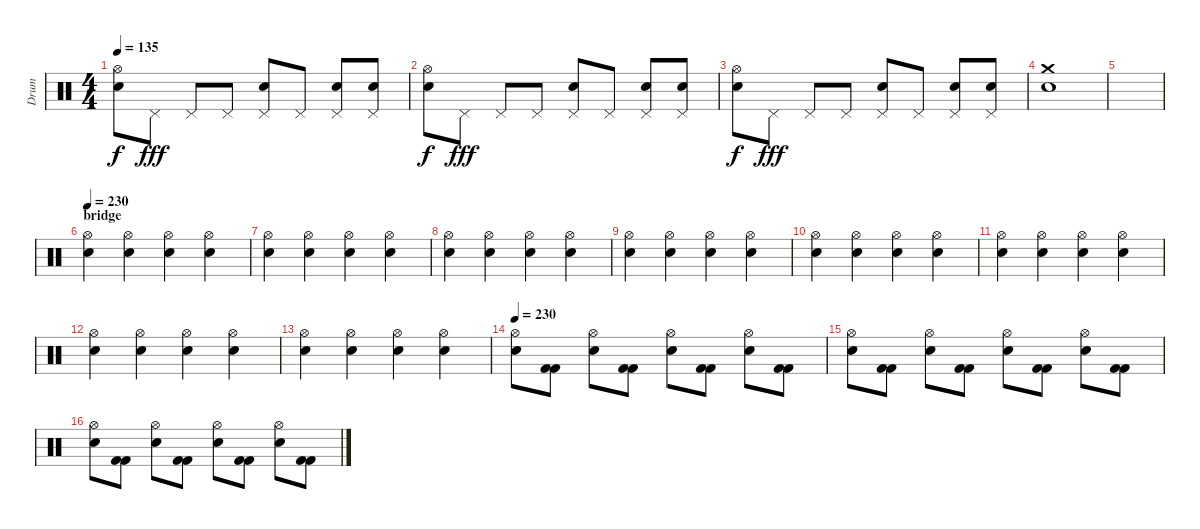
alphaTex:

\track ("Drum" "Drum") {instrument percussion}
\staff {score}
\articulation defaults
\ts (4 4)
\tempo 135
\clef neutral
\ks c
("Hi-Hat (open)" "Electric Snare (hit)").8{dy f} "Pedal Hi-Hat (hit)".8{dy fff} "Pedal Hi-Hat (hit)".8 "Pedal Hi-Hat (hit)".8 ("Pedal Hi-Hat (hit)" "Electric Snare (hit)").8 "Pedal Hi-Hat (hit)".8 ("Pedal Hi-Hat (hit)" "Electric Snare (hit)").8 ("Pedal Hi-Hat (hit)" "Electric Snare (hit)").8 |
("Hi-Hat (open)" "Electric Snare (hit)").8{dy f} "Pedal Hi-Hat (hit)".8{dy fff} "Pedal Hi-Hat (hit)".8 "Pedal Hi-Hat (hit)".8 ("Pedal Hi-Hat (hit)" "Electric Snare (hit)").8 "Pedal Hi-Hat (hit)".8 ("Pedal Hi-Hat (hit)" "Electric Snare (hit)").8 ("Pedal Hi-Hat (hit)" "Electric Snare (hit)").8 |
("Hi-Hat (open)" "Electric Snare (hit)").8{dy f} "Pedal Hi-Hat (hit)".8{dy fff} "Pedal Hi-Hat (hit)".8 "Pedal Hi-Hat (hit)".8 ("Pedal Hi-Hat (hit)" "Electric Snare (hit)").8 "Pedal Hi-Hat (hit)".8 ("Pedal Hi-Hat (hit)" "Electric Snare (hit)").8 ("Pedal Hi-Hat (hit)" "Electric Snare (hit)").8 |
("Crash medium (hit)" "Electric Snare (hit)").1 |
|
\section ("" "bridge")
\tempo 230
("Hi-Hat (open)" "Electric Snare (hit)").4 ("Hi-Hat (open)" "Electric Snare (hit)").4 ("Hi-Hat (open)" "Electric Snare (hit)").4 ("Hi-Hat (open)" "Electric Snare (hit)").4 |
("Hi-Hat (open)" "Electric Snare (hit)").4 ("Hi-Hat (open)" "Electric Snare (hit)").4 ("Hi-Hat (open)" "Electric Snare (hit)").4 ("Hi-Hat (open)" "Electric Snare (hit)").4 |
("Hi-Hat (open)" "Electric Snare (hit)").4 ("Hi-Hat (open)" "Electric Snare (hit)").4 ("Hi-Hat (open)" "Electric Snare (hit)").4 ("Hi-Hat (open)" "Electric Snare (hit)").4 |
("Hi-Hat (open)" "Electric Snare (hit)").4 ("Hi-Hat (open)" "Electric Snare (hit)").4 ("Hi-Hat (open)" "Electric Snare (hit)").4 ("Hi-Hat (open)" "Electric Snare (hit)").4 |
("Hi-Hat (open)" "Electric Snare (hit)").4 ("Hi-Hat (open)" "Electric Snare (hit)").4 ("Hi-Hat (open)" "Electric Snare (hit)").4 ("Hi-Hat (open)" "Electric Snare (hit)").4 |
("Hi-Hat (open)" "Electric Snare (hit)").4 ("Hi-Hat (open)" "Electric Snare (hit)").4 ("Hi-Hat (open)" "Electric Snare (hit)").4 ("Hi-Hat (open)" "Electric Snare (hit)").4 |
("Hi-Hat (open)" "Electric Snare (hit)").4 ("Hi-Hat (open)" "Electric Snare (hit)").4 ("Hi-Hat (open)" "Electric Snare (hit)").4 ("Hi-Hat (open)" "Electric Snare (hit)").4 |
("Hi-Hat (open)" "Electric Snare (hit)").4 ("Hi-Hat (open)" "Electric Snare (hit)").4 ("Hi-Hat (open)" "Electric Snare (hit)").4 ("Hi-Hat (open)" "Electric Snare (hit)").4 |
\tempo 230
("Hi-Hat (open)" "Electric Snare (hit)").8 ("Kick (hit) 2" "Kick (hit) 2").8 ("Hi-Hat (open)" "Electric Snare (hit)").8 ("Kick (hit) 2" "Kick (hit) 2").8 ("Hi-Hat (open)" "Electric Snare (hit)").8 ("Kick (hit) 2" "Kick (hit) 2").8 ("Hi-Hat (open)" "Electric Snare (hit)").8 ("Kick (hit) 2" "Kick (hit) 2").8 |
("Hi-Hat (open)" "Electric Snare (hit)").8 ("Kick (hit) 2" "Kick (hit) 2").8 ("Hi-Hat (open)" "Electric Snare (hit)").8 ("Kick (hit) 2" "Kick (hit) 2").8 ("Hi-Hat (open)" "Electric Snare (hit)").8 ("Kick (hit) 2" "Kick (hit) 2").8 ("Hi-Hat (open)" "Electric Snare (hit)").8 ("Kick (hit) 2" "Kick (hit) 2").8 |
("Hi-Hat (open)" "Electric Snare (hit)").8 ("Kick (hit) 2" "Kick (hit) 2").8 ("Hi-Hat (open)" "Electric Snare (hit)").8 ("Kick (hit) 2" "Kick (hit) 2").8 ("Hi-Hat (open)" "Electric Snare (hit)").8 ("Kick (hit) 2" "Kick (hit) 2").8 ("Hi-Hat (open)" "Electric Snare (hit)").8 ("Kick (hit) 2" "Kick (hit) 2").8
